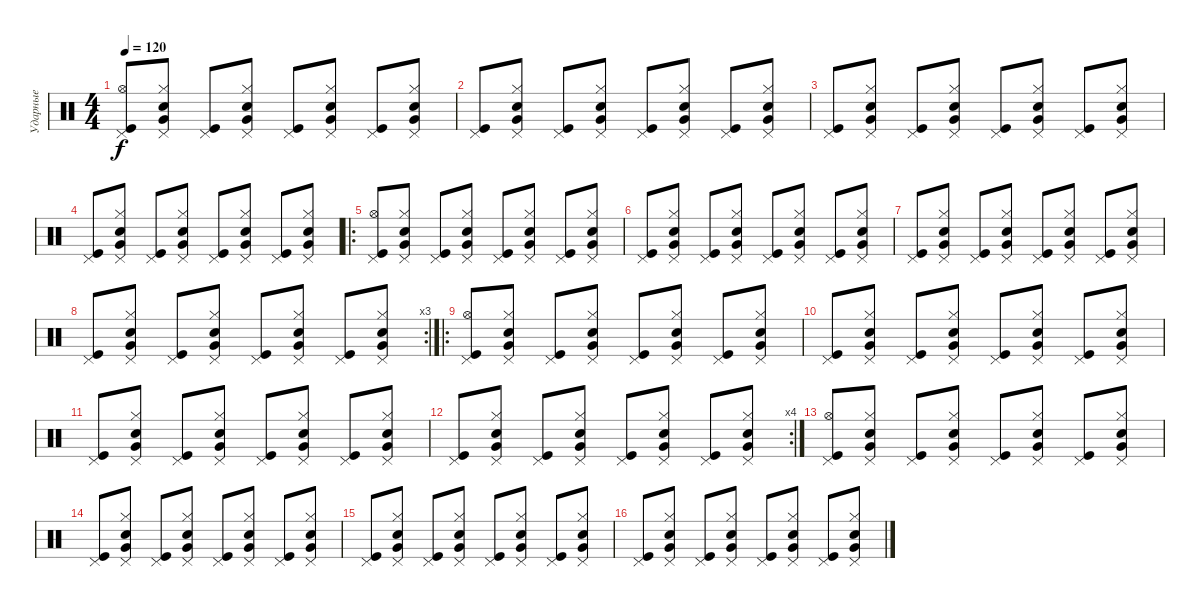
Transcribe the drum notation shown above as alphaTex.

\track ("Ударные" "Ударные") {instrument percussion}
\staff {score}
\articulation defaults
\ts (4 4)
\tempo 120
\clef neutral
\ks c
("Pedal Hi-Hat (hit)" "Hi-Hat (open)" "Kick (hit)").8{dy f} ("Pedal Hi-Hat (hit)" "Hi-Hat (closed)" "Electric Snare (hit)" "Very Low Tom (hit)").8 ("Pedal Hi-Hat (hit)" "Kick (hit)").8 ("Pedal Hi-Hat (hit)" "Hi-Hat (closed)" "Electric Snare (hit)" "Very Low Tom (hit)").8 ("Pedal Hi-Hat (hit)" "Kick (hit)").8 ("Pedal Hi-Hat (hit)" "Hi-Hat (closed)" "Electric Snare (hit)" "Very Low Tom (hit)").8 ("Pedal Hi-Hat (hit)" "Kick (hit)").8 ("Pedal Hi-Hat (hit)" "Hi-Hat (closed)" "Electric Snare (hit)" "Very Low Tom (hit)").8 |
("Pedal Hi-Hat (hit)" "Kick (hit)").8 ("Pedal Hi-Hat (hit)" "Hi-Hat (closed)" "Electric Snare (hit)" "Very Low Tom (hit)").8 ("Pedal Hi-Hat (hit)" "Kick (hit)").8 ("Pedal Hi-Hat (hit)" "Hi-Hat (closed)" "Electric Snare (hit)" "Very Low Tom (hit)").8 ("Pedal Hi-Hat (hit)" "Kick (hit)").8 ("Pedal Hi-Hat (hit)" "Hi-Hat (closed)" "Electric Snare (hit)" "Very Low Tom (hit)").8 ("Pedal Hi-Hat (hit)" "Kick (hit)").8 ("Pedal Hi-Hat (hit)" "Hi-Hat (closed)" "Electric Snare (hit)" "Very Low Tom (hit)").8 |
("Pedal Hi-Hat (hit)" "Kick (hit)").8 ("Pedal Hi-Hat (hit)" "Hi-Hat (closed)" "Electric Snare (hit)" "Very Low Tom (hit)").8 ("Pedal Hi-Hat (hit)" "Kick (hit)").8 ("Pedal Hi-Hat (hit)" "Hi-Hat (closed)" "Electric Snare (hit)" "Very Low Tom (hit)").8 ("Pedal Hi-Hat (hit)" "Kick (hit)").8 ("Pedal Hi-Hat (hit)" "Hi-Hat (closed)" "Electric Snare (hit)" "Very Low Tom (hit)").8 ("Pedal Hi-Hat (hit)" "Kick (hit)").8 ("Pedal Hi-Hat (hit)" "Hi-Hat (closed)" "Electric Snare (hit)" "Very Low Tom (hit)").8 |
("Pedal Hi-Hat (hit)" "Kick (hit)").8 ("Pedal Hi-Hat (hit)" "Hi-Hat (closed)" "Electric Snare (hit)" "Very Low Tom (hit)").8 ("Pedal Hi-Hat (hit)" "Kick (hit)").8 ("Pedal Hi-Hat (hit)" "Hi-Hat (closed)" "Electric Snare (hit)" "Very Low Tom (hit)").8 ("Pedal Hi-Hat (hit)" "Kick (hit)").8 ("Pedal Hi-Hat (hit)" "Hi-Hat (closed)" "Electric Snare (hit)" "Very Low Tom (hit)").8 ("Pedal Hi-Hat (hit)" "Kick (hit)").8 ("Pedal Hi-Hat (hit)" "Hi-Hat (closed)" "Electric Snare (hit)" "Very Low Tom (hit)").8 |
\ro
("Pedal Hi-Hat (hit)" "Hi-Hat (open)" "Kick (hit)").8 ("Pedal Hi-Hat (hit)" "Hi-Hat (closed)" "Electric Snare (hit)" "Very Low Tom (hit)").8 ("Pedal Hi-Hat (hit)" "Kick (hit)").8 ("Pedal Hi-Hat (hit)" "Hi-Hat (closed)" "Electric Snare (hit)" "Very Low Tom (hit)").8 ("Pedal Hi-Hat (hit)" "Kick (hit)").8 ("Pedal Hi-Hat (hit)" "Hi-Hat (closed)" "Electric Snare (hit)" "Very Low Tom (hit)").8 ("Pedal Hi-Hat (hit)" "Kick (hit)").8 ("Pedal Hi-Hat (hit)" "Hi-Hat (closed)" "Electric Snare (hit)" "Very Low Tom (hit)").8 |
("Pedal Hi-Hat (hit)" "Kick (hit)").8 ("Pedal Hi-Hat (hit)" "Hi-Hat (closed)" "Electric Snare (hit)" "Very Low Tom (hit)").8 ("Pedal Hi-Hat (hit)" "Kick (hit)").8 ("Pedal Hi-Hat (hit)" "Hi-Hat (closed)" "Electric Snare (hit)" "Very Low Tom (hit)").8 ("Pedal Hi-Hat (hit)" "Kick (hit)").8 ("Pedal Hi-Hat (hit)" "Hi-Hat (closed)" "Electric Snare (hit)" "Very Low Tom (hit)").8 ("Pedal Hi-Hat (hit)" "Kick (hit)").8 ("Pedal Hi-Hat (hit)" "Hi-Hat (closed)" "Electric Snare (hit)" "Very Low Tom (hit)").8 |
("Pedal Hi-Hat (hit)" "Kick (hit)").8 ("Pedal Hi-Hat (hit)" "Hi-Hat (closed)" "Electric Snare (hit)" "Very Low Tom (hit)").8 ("Pedal Hi-Hat (hit)" "Kick (hit)").8 ("Pedal Hi-Hat (hit)" "Hi-Hat (closed)" "Electric Snare (hit)" "Very Low Tom (hit)").8 ("Pedal Hi-Hat (hit)" "Kick (hit)").8 ("Pedal Hi-Hat (hit)" "Hi-Hat (closed)" "Electric Snare (hit)" "Very Low Tom (hit)").8 ("Pedal Hi-Hat (hit)" "Kick (hit)").8 ("Pedal Hi-Hat (hit)" "Hi-Hat (closed)" "Electric Snare (hit)" "Very Low Tom (hit)").8 |
\rc 3
("Pedal Hi-Hat (hit)" "Kick (hit)").8 ("Pedal Hi-Hat (hit)" "Hi-Hat (closed)" "Electric Snare (hit)" "Very Low Tom (hit)").8 ("Pedal Hi-Hat (hit)" "Kick (hit)").8 ("Pedal Hi-Hat (hit)" "Hi-Hat (closed)" "Electric Snare (hit)" "Very Low Tom (hit)").8 ("Pedal Hi-Hat (hit)" "Kick (hit)").8 ("Pedal Hi-Hat (hit)" "Hi-Hat (closed)" "Electric Snare (hit)" "Very Low Tom (hit)").8 ("Pedal Hi-Hat (hit)" "Kick (hit)").8 ("Pedal Hi-Hat (hit)" "Hi-Hat (closed)" "Electric Snare (hit)" "Very Low Tom (hit)").8 |
\ro
("Pedal Hi-Hat (hit)" "Hi-Hat (open)" "Kick (hit)").8 ("Pedal Hi-Hat (hit)" "Hi-Hat (closed)" "Electric Snare (hit)" "Very Low Tom (hit)").8 ("Pedal Hi-Hat (hit)" "Kick (hit)").8 ("Pedal Hi-Hat (hit)" "Hi-Hat (closed)" "Electric Snare (hit)" "Very Low Tom (hit)").8 ("Pedal Hi-Hat (hit)" "Kick (hit)").8 ("Pedal Hi-Hat (hit)" "Hi-Hat (closed)" "Electric Snare (hit)" "Very Low Tom (hit)").8 ("Pedal Hi-Hat (hit)" "Kick (hit)").8 ("Pedal Hi-Hat (hit)" "Hi-Hat (closed)" "Electric Snare (hit)" "Very Low Tom (hit)").8 |
("Pedal Hi-Hat (hit)" "Kick (hit)").8 ("Pedal Hi-Hat (hit)" "Hi-Hat (closed)" "Electric Snare (hit)" "Very Low Tom (hit)").8 ("Pedal Hi-Hat (hit)" "Kick (hit)").8 ("Pedal Hi-Hat (hit)" "Hi-Hat (closed)" "Electric Snare (hit)" "Very Low Tom (hit)").8 ("Pedal Hi-Hat (hit)" "Kick (hit)").8 ("Pedal Hi-Hat (hit)" "Hi-Hat (closed)" "Electric Snare (hit)" "Very Low Tom (hit)").8 ("Pedal Hi-Hat (hit)" "Kick (hit)").8 ("Pedal Hi-Hat (hit)" "Hi-Hat (closed)" "Electric Snare (hit)" "Very Low Tom (hit)").8 |
("Pedal Hi-Hat (hit)" "Kick (hit)").8 ("Pedal Hi-Hat (hit)" "Hi-Hat (closed)" "Electric Snare (hit)" "Very Low Tom (hit)").8 ("Pedal Hi-Hat (hit)" "Kick (hit)").8 ("Pedal Hi-Hat (hit)" "Hi-Hat (closed)" "Electric Snare (hit)" "Very Low Tom (hit)").8 ("Pedal Hi-Hat (hit)" "Kick (hit)").8 ("Pedal Hi-Hat (hit)" "Hi-Hat (closed)" "Electric Snare (hit)" "Very Low Tom (hit)").8 ("Pedal Hi-Hat (hit)" "Kick (hit)").8 ("Pedal Hi-Hat (hit)" "Hi-Hat (closed)" "Electric Snare (hit)" "Very Low Tom (hit)").8 |
\rc 4
("Pedal Hi-Hat (hit)" "Kick (hit)").8 ("Pedal Hi-Hat (hit)" "Hi-Hat (closed)" "Electric Snare (hit)" "Very Low Tom (hit)").8 ("Pedal Hi-Hat (hit)" "Kick (hit)").8 ("Pedal Hi-Hat (hit)" "Hi-Hat (closed)" "Electric Snare (hit)" "Very Low Tom (hit)").8 ("Pedal Hi-Hat (hit)" "Kick (hit)").8 ("Pedal Hi-Hat (hit)" "Hi-Hat (closed)" "Electric Snare (hit)" "Very Low Tom (hit)").8 ("Pedal Hi-Hat (hit)" "Kick (hit)").8 ("Pedal Hi-Hat (hit)" "Hi-Hat (closed)" "Electric Snare (hit)" "Very Low Tom (hit)").8 |
("Pedal Hi-Hat (hit)" "Hi-Hat (open)" "Kick (hit)").8 ("Pedal Hi-Hat (hit)" "Hi-Hat (closed)" "Electric Snare (hit)" "Very Low Tom (hit)").8 ("Pedal Hi-Hat (hit)" "Kick (hit)").8 ("Pedal Hi-Hat (hit)" "Hi-Hat (closed)" "Electric Snare (hit)" "Very Low Tom (hit)").8 ("Pedal Hi-Hat (hit)" "Kick (hit)").8 ("Pedal Hi-Hat (hit)" "Hi-Hat (closed)" "Electric Snare (hit)" "Very Low Tom (hit)").8 ("Pedal Hi-Hat (hit)" "Kick (hit)").8 ("Pedal Hi-Hat (hit)" "Hi-Hat (closed)" "Electric Snare (hit)" "Very Low Tom (hit)").8 |
("Pedal Hi-Hat (hit)" "Kick (hit)").8 ("Pedal Hi-Hat (hit)" "Hi-Hat (closed)" "Electric Snare (hit)" "Very Low Tom (hit)").8 ("Pedal Hi-Hat (hit)" "Kick (hit)").8 ("Pedal Hi-Hat (hit)" "Hi-Hat (closed)" "Electric Snare (hit)" "Very Low Tom (hit)").8 ("Pedal Hi-Hat (hit)" "Kick (hit)").8 ("Pedal Hi-Hat (hit)" "Hi-Hat (closed)" "Electric Snare (hit)" "Very Low Tom (hit)").8 ("Pedal Hi-Hat (hit)" "Kick (hit)").8 ("Pedal Hi-Hat (hit)" "Hi-Hat (closed)" "Electric Snare (hit)" "Very Low Tom (hit)").8 |
("Pedal Hi-Hat (hit)" "Kick (hit)").8 ("Pedal Hi-Hat (hit)" "Hi-Hat (closed)" "Electric Snare (hit)" "Very Low Tom (hit)").8 ("Pedal Hi-Hat (hit)" "Kick (hit)").8 ("Pedal Hi-Hat (hit)" "Hi-Hat (closed)" "Electric Snare (hit)" "Very Low Tom (hit)").8 ("Pedal Hi-Hat (hit)" "Kick (hit)").8 ("Pedal Hi-Hat (hit)" "Hi-Hat (closed)" "Electric Snare (hit)" "Very Low Tom (hit)").8 ("Pedal Hi-Hat (hit)" "Kick (hit)").8 ("Pedal Hi-Hat (hit)" "Hi-Hat (closed)" "Electric Snare (hit)" "Very Low Tom (hit)").8 |
("Pedal Hi-Hat (hit)" "Kick (hit)").8 ("Pedal Hi-Hat (hit)" "Hi-Hat (closed)" "Electric Snare (hit)" "Very Low Tom (hit)").8 ("Pedal Hi-Hat (hit)" "Kick (hit)").8 ("Pedal Hi-Hat (hit)" "Hi-Hat (closed)" "Electric Snare (hit)" "Very Low Tom (hit)").8 ("Pedal Hi-Hat (hit)" "Kick (hit)").8 ("Pedal Hi-Hat (hit)" "Hi-Hat (closed)" "Electric Snare (hit)" "Very Low Tom (hit)").8 ("Pedal Hi-Hat (hit)" "Kick (hit)").8 ("Pedal Hi-Hat (hit)" "Hi-Hat (closed)" "Electric Snare (hit)" "Very Low Tom (hit)").8
